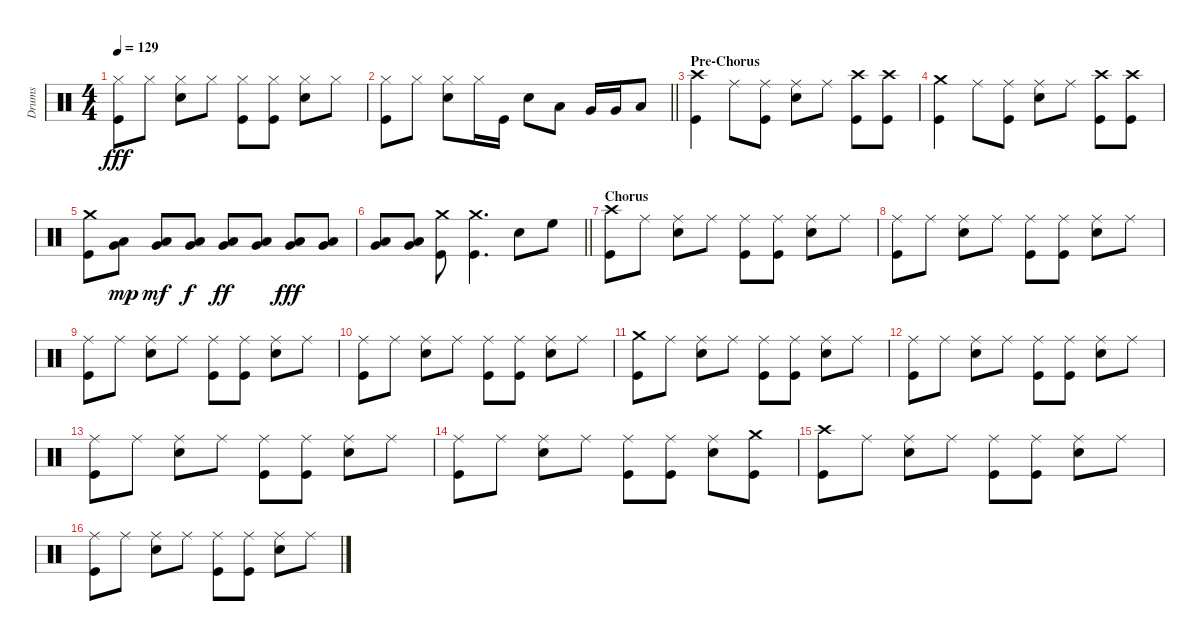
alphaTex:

\track ("Drums" "Drums") {instrument percussion}
\staff {score}
\articulation defaults
\ts (4 4)
\tempo 129
\clef neutral
\ks c
("Hi-Hat (closed)" "Kick (hit)").8{dy fff} "Hi-Hat (closed)".8 ("Hi-Hat (closed)" "Snare (hit) 2").8 "Hi-Hat (closed)".8 ("Hi-Hat (closed)" "Kick (hit)").8 ("Hi-Hat (closed)" "Kick (hit)").8 ("Hi-Hat (closed)" "Snare (hit) 2").8 "Hi-Hat (closed)".8 |
\barLineRight lightlight
("Hi-Hat (closed)" "Kick (hit)").8 "Hi-Hat (closed)".8 ("Hi-Hat (closed)" "Snare (hit) 2").8 "Hi-Hat (closed)".16 "Kick (hit)".16 "Snare (hit) 2".8 "Low Tom (hit)".8 "Very Low Tom (hit)".16 "Very Low Tom (hit)".16 "Low Floor Tom (hit)".8 |
\section ("" "Pre-Chorus")
("Crash high (hit)" "Kick (hit)").4 "Ride (middle)".8 ("Ride (middle)" "Kick (hit)").8 ("Ride (middle)" "Snare (hit) 2").8 "Ride (middle)".8 ("Crash high (hit)" "Kick (hit)").8 ("Crash high (hit)" "Kick (hit)").8 |
("Crash medium (hit)" "Kick (hit)").4 "Ride (middle)".8 ("Ride (middle)" "Kick (hit)").8 ("Ride (middle)" "Snare (hit) 2").8 "Ride (middle)".8 ("Crash high (hit)" "Kick (hit)").8 ("Crash high (hit)" "Kick (hit)").8 |
("Crash medium (hit)" "Kick (hit)").8 ("Very Low Tom (hit)" "Low Floor Tom (hit)").8{dy mp} ("Very Low Tom (hit)" "Low Floor Tom (hit)").8{dy mf} ("Very Low Tom (hit)" "Low Floor Tom (hit)").8{dy f} ("Very Low Tom (hit)" "Low Floor Tom (hit)").8{dy ff} ("Very Low Tom (hit)" "Low Floor Tom (hit)").8 ("Very Low Tom (hit)" "Low Floor Tom (hit)").8{dy fff} ("Very Low Tom (hit)" "Low Floor Tom (hit)").8 |
\barLineRight lightlight
("Very Low Tom (hit)" "Low Floor Tom (hit)").8 ("Very Low Tom (hit)" "Low Floor Tom (hit)").8 ("Crash medium (hit)" "Kick (hit)").8 ("Crash medium (hit)" "Kick (hit)").4{d} "Snare (hit) 2".8 "High Floor Tom (hit)".8 |
\section ("" "Chorus")
("Crash high (hit)" "Kick (hit)").8 "Ride (middle)".8 ("Ride (middle)" "Snare (hit) 2").8 "Ride (middle)".8 ("Ride (middle)" "Kick (hit)").8 ("Ride (middle)" "Kick (hit)").8 ("Ride (middle)" "Snare (hit) 2").8 "Ride (middle)".8 |
("Ride (middle)" "Kick (hit)").8 "Ride (middle)".8 ("Ride (middle)" "Snare (hit) 2").8 "Ride (middle)".8 ("Ride (middle)" "Kick (hit)").8 ("Ride (middle)" "Kick (hit)").8 ("Ride (middle)" "Snare (hit) 2").8 "Ride (middle)".8 |
("Ride (middle)" "Kick (hit)").8 "Ride (middle)".8 ("Ride (middle)" "Snare (hit) 2").8 "Ride (middle)".8 ("Ride (middle)" "Kick (hit)").8 ("Ride (middle)" "Kick (hit)").8 ("Ride (middle)" "Snare (hit) 2").8 "Ride (middle)".8 |
("Ride (middle)" "Kick (hit)").8 "Ride (middle)".8 ("Ride (middle)" "Snare (hit) 2").8 "Ride (middle)".8 ("Ride (middle)" "Kick (hit)").8 ("Ride (middle)" "Kick (hit)").8 ("Ride (middle)" "Snare (hit) 2").8 "Ride (middle)".8 |
("Crash medium (hit)" "Kick (hit)").8 "Ride (middle)".8 ("Ride (middle)" "Snare (hit) 2").8 "Ride (middle)".8 ("Ride (middle)" "Kick (hit)").8 ("Ride (middle)" "Kick (hit)").8 ("Ride (middle)" "Snare (hit) 2").8 "Ride (middle)".8 |
("Ride (middle)" "Kick (hit)").8 "Ride (middle)".8 ("Ride (middle)" "Snare (hit) 2").8 "Ride (middle)".8 ("Ride (middle)" "Kick (hit)").8 ("Ride (middle)" "Kick (hit)").8 ("Ride (middle)" "Snare (hit) 2").8 "Ride (middle)".8 |
("Ride (middle)" "Kick (hit)").8 "Ride (middle)".8 ("Ride (middle)" "Snare (hit) 2").8 "Ride (middle)".8 ("Ride (middle)" "Kick (hit)").8 ("Ride (middle)" "Kick (hit)").8 ("Ride (middle)" "Snare (hit) 2").8 "Ride (middle)".8 |
("Ride (middle)" "Kick (hit)").8 "Ride (middle)".8 ("Ride (middle)" "Snare (hit) 2").8 "Ride (middle)".8 ("Ride (middle)" "Kick (hit)").8 ("Ride (middle)" "Kick (hit)").8 ("Ride (middle)" "Snare (hit) 2").8 ("Crash medium (hit)" "Kick (hit)").8 |
("Crash high (hit)" "Kick (hit)").8 "Ride (middle)".8 ("Ride (middle)" "Snare (hit) 2").8 "Ride (middle)".8 ("Ride (middle)" "Kick (hit)").8 ("Ride (middle)" "Kick (hit)").8 ("Ride (middle)" "Snare (hit) 2").8 "Ride (middle)".8 |
("Ride (middle)" "Kick (hit)").8 "Ride (middle)".8 ("Ride (middle)" "Snare (hit) 2").8 "Ride (middle)".8 ("Ride (middle)" "Kick (hit)").8 ("Ride (middle)" "Kick (hit)").8 ("Ride (middle)" "Snare (hit) 2").8 "Ride (middle)".8
